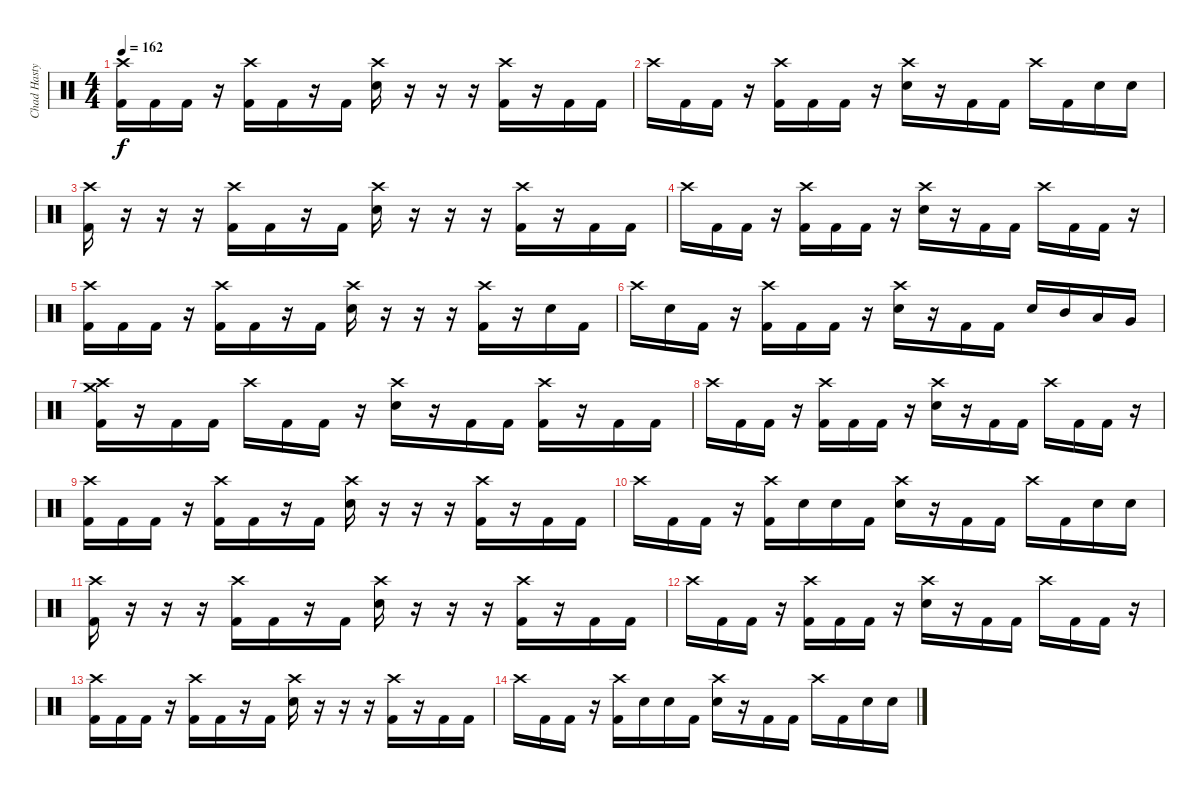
\track ("Chad Hasty" "Chad Hasty") {instrument percussion}
\staff {score}
\articulation defaults
\ts (4 4)
\tempo 162
\clef neutral
\ks c
("Crash high (hit)" "Kick (hit) 2").16{dy f} "Kick (hit) 2".16 "Kick (hit) 2".16 r.16 ("Crash high (hit)" "Kick (hit) 2").16 "Kick (hit) 2".16 r.16 "Kick (hit) 2".16 ("Crash high (hit)" "Snare (hit) 2").16 r.16 r.16 r.16 ("Crash high (hit)" "Kick (hit) 2").16 r.16 "Kick (hit) 2".16 "Kick (hit) 2".16 |
"Crash high (hit)".16 "Kick (hit) 2".16 "Kick (hit) 2".16 r.16 ("Crash high (hit)" "Kick (hit) 2").16 "Kick (hit) 2".16 "Kick (hit) 2".16 r.16 ("Crash high (hit)" "Snare (hit) 2").16 r.16 "Kick (hit) 2".16 "Kick (hit) 2".16 "Crash high (hit)".16 "Kick (hit) 2".16 "Snare (hit) 2".16 "Snare (hit) 2".16 |
("Crash high (hit)" "Kick (hit) 2").16{volume 8} r.16 r.16 r.16 ("Crash high (hit)" "Kick (hit) 2").16 "Kick (hit) 2".16 r.16 "Kick (hit) 2".16 ("Crash high (hit)" "Snare (hit) 2").16 r.16 r.16 r.16 ("Crash high (hit)" "Kick (hit) 2").16 r.16 "Kick (hit) 2".16 "Kick (hit) 2".16 |
"Crash high (hit)".16 "Kick (hit) 2".16 "Kick (hit) 2".16 r.16 ("Crash high (hit)" "Kick (hit) 2").16 "Kick (hit) 2".16 "Kick (hit) 2".16 r.16 ("Crash high (hit)" "Snare (hit) 2").16 r.16 "Kick (hit) 2".16 "Kick (hit) 2".16 "Crash high (hit)".16 "Kick (hit) 2".16 "Kick (hit) 2".16 r.16 |
("Crash high (hit)" "Kick (hit) 2").16 "Kick (hit) 2".16 "Kick (hit) 2".16 r.16 ("Crash high (hit)" "Kick (hit) 2").16 "Kick (hit) 2".16 r.16 "Kick (hit) 2".16 ("Crash high (hit)" "Snare (hit) 2").16 r.16 r.16 r.16 ("Crash high (hit)" "Kick (hit) 2").16 r.16 "Snare (hit) 2".16 "Kick (hit) 2".16 |
"Crash high (hit)".16 "Snare (hit) 2".16 "Kick (hit) 2".16 r.16 ("Crash high (hit)" "Kick (hit) 2").16 "Kick (hit) 2".16 "Kick (hit) 2".16 r.16 ("Crash high (hit)" "Snare (hit) 2").16 r.16 "Kick (hit) 2".16 "Kick (hit) 2".16 "Snare (hit) 2".16 "Mid Tom (hit)".16 "Low Tom (hit)".16 "Very Low Tom (hit)".16 |
("Crash medium (hit)" "Crash high (hit)" "Kick (hit) 2").16{volume 5} r.16 "Kick (hit) 2".16 "Kick (hit) 2".16 "Crash high (hit)".16 "Kick (hit) 2".16 "Kick (hit) 2".16 r.16 ("Crash high (hit)" "Snare (hit) 2").16 r.16 "Kick (hit) 2".16 "Kick (hit) 2".16 ("Crash high (hit)" "Kick (hit) 2").16 r.16 "Kick (hit) 2".16 "Kick (hit) 2".16 |
"Crash high (hit)".16{volume 13} "Kick (hit) 2".16 "Kick (hit) 2".16 r.16 ("Crash high (hit)" "Kick (hit) 2").16 "Kick (hit) 2".16 "Kick (hit) 2".16 r.16 ("Crash high (hit)" "Snare (hit) 2").16 r.16 "Kick (hit) 2".16 "Kick (hit) 2".16 "Crash high (hit)".16 "Kick (hit) 2".16 "Kick (hit) 2".16 r.16 |
("Crash high (hit)" "Kick (hit) 2").16 "Kick (hit) 2".16 "Kick (hit) 2".16 r.16 ("Crash high (hit)" "Kick (hit) 2").16 "Kick (hit) 2".16 r.16 "Kick (hit) 2".16 ("Crash high (hit)" "Snare (hit) 2").16 r.16 r.16 r.16 ("Crash high (hit)" "Kick (hit) 2").16 r.16 "Kick (hit) 2".16 "Kick (hit) 2".16 |
"Crash high (hit)".16 "Kick (hit) 2".16 "Kick (hit) 2".16 r.16 ("Crash high (hit)" "Kick (hit) 2").16 "Snare (hit) 2".16 "Snare (hit) 2".16 "Kick (hit) 2".16 ("Crash high (hit)" "Snare (hit) 2").16 r.16 "Kick (hit) 2".16 "Kick (hit) 2".16 "Crash high (hit)".16 "Kick (hit) 2".16 "Snare (hit) 2".16 "Snare (hit) 2".16 |
("Crash high (hit)" "Kick (hit) 2").16 r.16 r.16 r.16 ("Crash high (hit)" "Kick (hit) 2").16 "Kick (hit) 2".16 r.16 "Kick (hit) 2".16 ("Crash high (hit)" "Snare (hit) 2").16 r.16 r.16 r.16 ("Crash high (hit)" "Kick (hit) 2").16 r.16 "Kick (hit) 2".16 "Kick (hit) 2".16 |
"Crash high (hit)".16 "Kick (hit) 2".16 "Kick (hit) 2".16 r.16 ("Crash high (hit)" "Kick (hit) 2").16 "Kick (hit) 2".16 "Kick (hit) 2".16 r.16 ("Crash high (hit)" "Snare (hit) 2").16 r.16 "Kick (hit) 2".16 "Kick (hit) 2".16 "Crash high (hit)".16 "Kick (hit) 2".16 "Kick (hit) 2".16 r.16 |
("Crash high (hit)" "Kick (hit) 2").16 "Kick (hit) 2".16 "Kick (hit) 2".16 r.16 ("Crash high (hit)" "Kick (hit) 2").16 "Kick (hit) 2".16 r.16 "Kick (hit) 2".16 ("Crash high (hit)" "Snare (hit) 2").16 r.16 r.16 r.16 ("Crash high (hit)" "Kick (hit) 2").16 r.16 "Kick (hit) 2".16 "Kick (hit) 2".16 |
"Crash high (hit)".16 "Kick (hit) 2".16 "Kick (hit) 2".16 r.16 ("Crash high (hit)" "Kick (hit) 2").16 "Snare (hit) 2".16 "Snare (hit) 2".16 "Kick (hit) 2".16 ("Crash high (hit)" "Snare (hit) 2").16 r.16 "Kick (hit) 2".16 "Kick (hit) 2".16 "Crash high (hit)".16 "Kick (hit) 2".16 "Snare (hit) 2".16 "Snare (hit) 2".16
